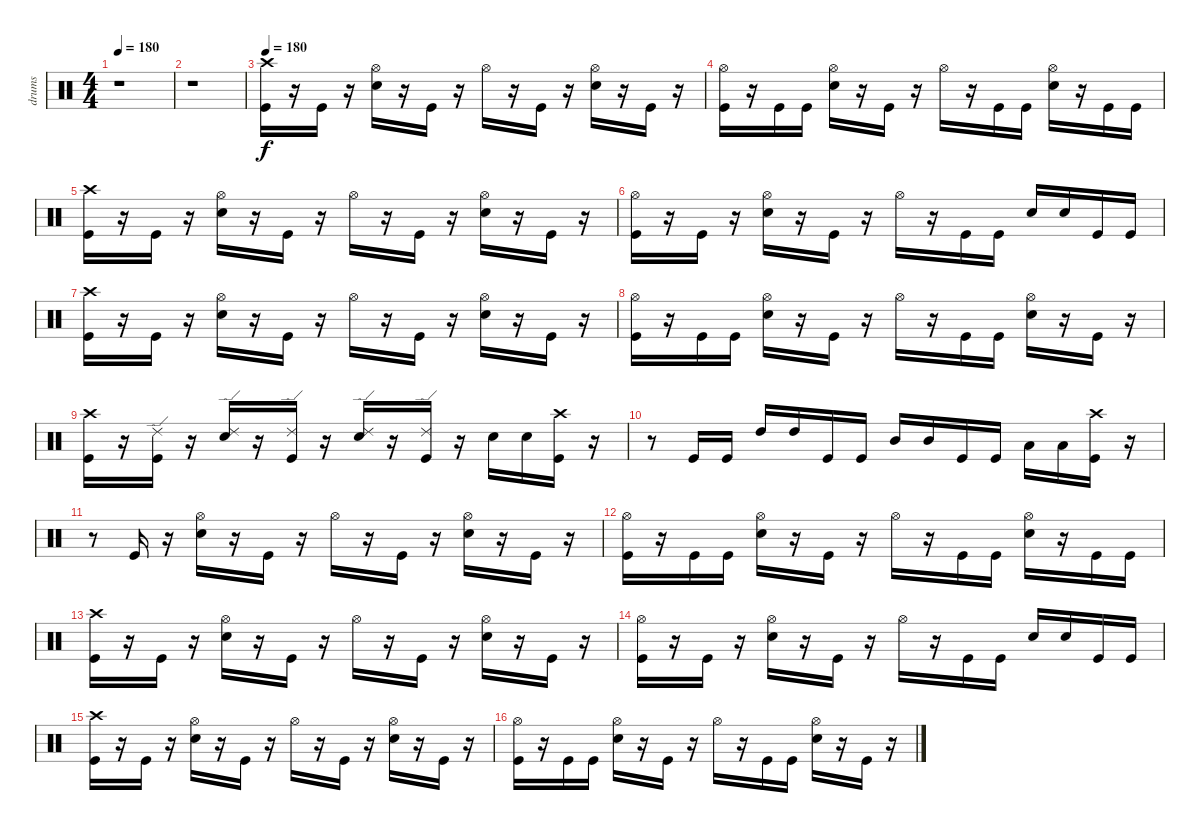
\track ("drums" "drums") {instrument percussion}
\staff {score}
\articulation defaults
\ts (4 4)
\tempo 180
\clef neutral
\ks c
r.1{dy f} |
r.1 |
\tempo 180
("Crash high (hit)" "Kick (hit)").16 r.16 "Kick (hit)".16 r.16 ("Hi-Hat (open)" "Snare (hit) 2").16 r.16 "Kick (hit)".16 r.16 "Hi-Hat (open)".16 r.16 "Kick (hit)".16 r.16 ("Hi-Hat (open)" "Snare (hit) 2").16 r.16 "Kick (hit)".16 r.16 |
("Hi-Hat (open)" "Kick (hit)").16 r.16 "Kick (hit)".16 "Kick (hit)".16 ("Hi-Hat (open)" "Snare (hit) 2").16 r.16 "Kick (hit)".16 r.16 "Hi-Hat (open)".16 r.16 "Kick (hit)".16 "Kick (hit)".16 ("Hi-Hat (open)" "Snare (hit) 2").16 r.16 "Kick (hit)".16 "Kick (hit)".16 |
("Crash high (hit)" "Kick (hit)").16 r.16 "Kick (hit)".16 r.16 ("Hi-Hat (open)" "Snare (hit) 2").16 r.16 "Kick (hit)".16 r.16 "Hi-Hat (open)".16 r.16 "Kick (hit)".16 r.16 ("Hi-Hat (open)" "Snare (hit) 2").16 r.16 "Kick (hit)".16 r.16 |
("Hi-Hat (open)" "Kick (hit)").16 r.16 "Kick (hit)".16 r.16 ("Hi-Hat (open)" "Snare (hit) 2").16 r.16 "Kick (hit)".16 r.16 "Hi-Hat (open)".16 r.16 "Kick (hit)".16 "Kick (hit)".16 "Snare (hit) 2".16 "Snare (hit) 2".16 "Kick (hit)".16 "Kick (hit)".16 |
("Crash high (hit)" "Kick (hit)").16 r.16 "Kick (hit)".16 r.16 ("Hi-Hat (open)" "Snare (hit) 2").16 r.16 "Kick (hit)".16 r.16 "Hi-Hat (open)".16 r.16 "Kick (hit)".16 r.16 ("Hi-Hat (open)" "Snare (hit) 2").16 r.16 "Kick (hit)".16 r.16 |
("Hi-Hat (open)" "Kick (hit)").16 r.16 "Kick (hit)".16 "Kick (hit)".16 ("Hi-Hat (open)" "Snare (hit) 2").16 r.16 "Kick (hit)".16 r.16 "Hi-Hat (open)".16 r.16 "Kick (hit)".16 "Kick (hit)".16 ("Hi-Hat (open)" "Snare (hit) 2").16 r.16 "Kick (hit)".16 r.16 |
("Crash high (hit)" "Kick (hit)").16 r.16 ("Ride (edge) 2" "Kick (hit)").16 r.16 ("Ride (edge) 2" "Snare (hit) 2").16 r.16 ("Ride (edge) 2" "Kick (hit)").16 r.16 ("Ride (edge) 2" "Snare (hit) 2").16 r.16 ("Ride (edge) 2" "Kick (hit)").16 r.16 "Snare (hit) 2".16 "Snare (hit) 2".16 ("Crash high (hit)" "Kick (hit)").16 r.16 |
r.8 "Kick (hit)".16 "Kick (hit)".16 "High Tom (hit)".16 "High Tom (hit)".16 "Kick (hit)".16 "Kick (hit)".16 "Mid Tom (hit)".16 "Mid Tom (hit)".16 "Kick (hit)".16 "Kick (hit)".16 "Low Tom (hit)".16 "Low Tom (hit)".16 ("Kick (hit)" "Crash high (hit)").16 r.16 |
r.8 "Kick (hit)".16 r.16 ("Hi-Hat (open)" "Snare (hit) 2").16 r.16 "Kick (hit)".16 r.16 "Hi-Hat (open)".16 r.16 "Kick (hit)".16 r.16 ("Hi-Hat (open)" "Snare (hit) 2").16 r.16 "Kick (hit)".16 r.16 |
("Hi-Hat (open)" "Kick (hit)").16 r.16 "Kick (hit)".16 "Kick (hit)".16 ("Hi-Hat (open)" "Snare (hit) 2").16 r.16 "Kick (hit)".16 r.16 "Hi-Hat (open)".16 r.16 "Kick (hit)".16 "Kick (hit)".16 ("Hi-Hat (open)" "Snare (hit) 2").16 r.16 "Kick (hit)".16 "Kick (hit)".16 |
("Crash high (hit)" "Kick (hit)").16 r.16 "Kick (hit)".16 r.16 ("Hi-Hat (open)" "Snare (hit) 2").16 r.16 "Kick (hit)".16 r.16 "Hi-Hat (open)".16 r.16 "Kick (hit)".16 r.16 ("Hi-Hat (open)" "Snare (hit) 2").16 r.16 "Kick (hit)".16 r.16 |
("Hi-Hat (open)" "Kick (hit)").16 r.16 "Kick (hit)".16 r.16 ("Hi-Hat (open)" "Snare (hit) 2").16 r.16 "Kick (hit)".16 r.16 "Hi-Hat (open)".16 r.16 "Kick (hit)".16 "Kick (hit)".16 "Snare (hit) 2".16 "Snare (hit) 2".16 "Kick (hit)".16 "Kick (hit)".16 |
("Crash high (hit)" "Kick (hit)").16 r.16 "Kick (hit)".16 r.16 ("Hi-Hat (open)" "Snare (hit) 2").16 r.16 "Kick (hit)".16 r.16 "Hi-Hat (open)".16 r.16 "Kick (hit)".16 r.16 ("Hi-Hat (open)" "Snare (hit) 2").16 r.16 "Kick (hit)".16 r.16 |
("Hi-Hat (open)" "Kick (hit)").16 r.16 "Kick (hit)".16 "Kick (hit)".16 ("Hi-Hat (open)" "Snare (hit) 2").16 r.16 "Kick (hit)".16 r.16 "Hi-Hat (open)".16 r.16 "Kick (hit)".16 "Kick (hit)".16 ("Hi-Hat (open)" "Snare (hit) 2").16 r.16 "Kick (hit)".16 r.16
